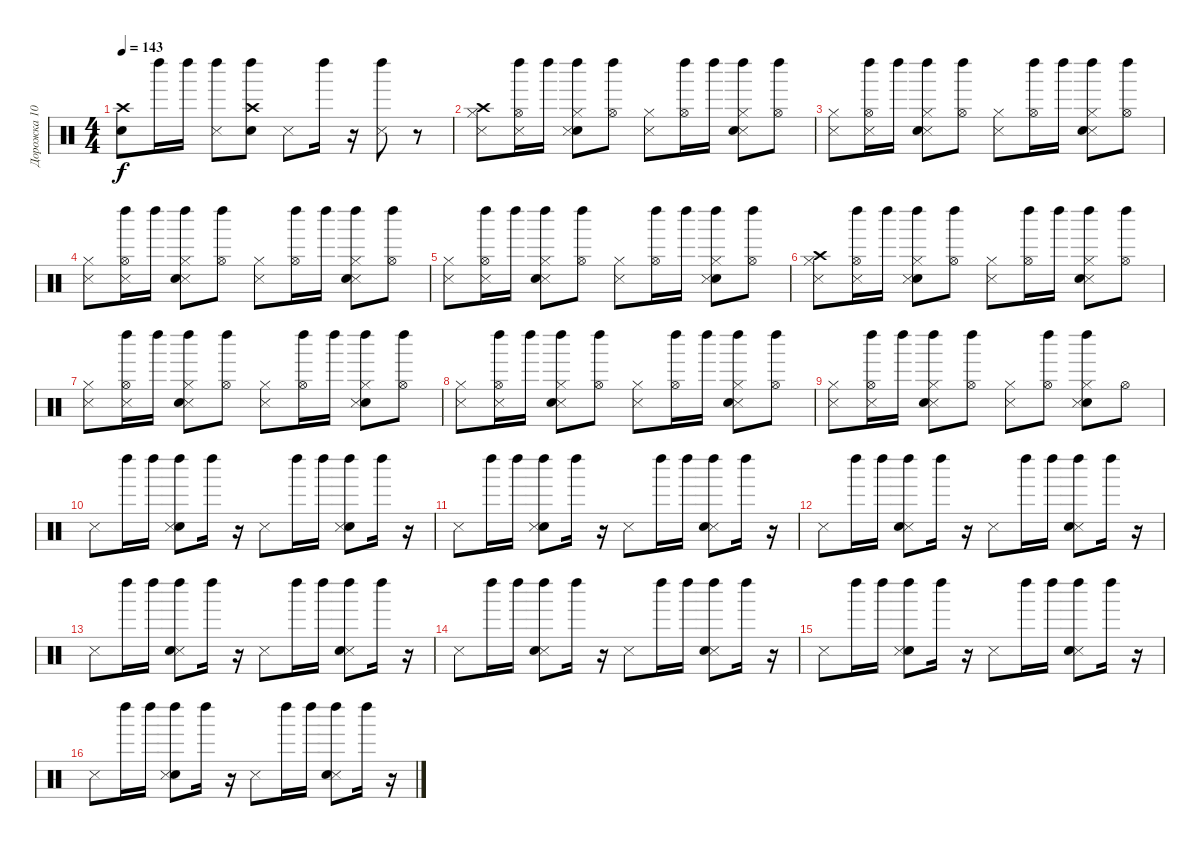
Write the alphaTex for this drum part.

\track ("Дорожка 10" "Дорожка 10") {instrument percussion}
\staff {score}
\articulation defaults
\ts (4 4)
\tempo 143
\clef neutral
\ks c
("Electric Snare (hit)" "Crash high (hit)").8{dy f} "Left Maraca (hit)".16 "Left Maraca (hit)".16 ("Metronome (hit)" "Left Maraca (hit)").8 ("Electric Snare (hit)" "Crash high (hit)" "Left Maraca (hit)").8 "Metronome (hit)".8 "Left Maraca (hit)".16 r.16 ("Metronome (hit)" "Left Maraca (hit)").8 r.8 |
("Metronome (hit)" "Crash high (hit)" "Hi-Hat (closed)").8 ("Metronome (hit)" "Hi-Hat (open)" "Left Maraca (hit)").16 "Left Maraca (hit)".16 ("Electric Snare (hit)" "Metronome (hit)" "Hi-Hat (closed)" "Left Maraca (hit)").8 ("Hi-Hat (open)" "Left Maraca (hit)").8 ("Metronome (hit)" "Hi-Hat (closed)").8 ("Hi-Hat (open)" "Left Maraca (hit)").16 "Left Maraca (hit)".16 ("Metronome (hit)" "Electric Snare (hit)" "Hi-Hat (closed)" "Left Maraca (hit)").8 ("Hi-Hat (open)" "Left Maraca (hit)").8 |
("Metronome (hit)" "Hi-Hat (closed)").8 ("Metronome (hit)" "Hi-Hat (open)" "Left Maraca (hit)").16 "Left Maraca (hit)".16 ("Metronome (hit)" "Electric Snare (hit)" "Hi-Hat (closed)" "Left Maraca (hit)").8 ("Hi-Hat (open)" "Left Maraca (hit)").8 ("Metronome (hit)" "Hi-Hat (closed)").8 ("Hi-Hat (open)" "Left Maraca (hit)").16 "Left Maraca (hit)".16 ("Metronome (hit)" "Electric Snare (hit)" "Hi-Hat (closed)" "Left Maraca (hit)").8 ("Hi-Hat (open)" "Left Maraca (hit)").8 |
("Metronome (hit)" "Hi-Hat (closed)").8 ("Metronome (hit)" "Hi-Hat (open)" "Left Maraca (hit)").16 "Left Maraca (hit)".16 ("Metronome (hit)" "Electric Snare (hit)" "Hi-Hat (closed)" "Left Maraca (hit)").8 ("Hi-Hat (open)" "Left Maraca (hit)").8 ("Metronome (hit)" "Hi-Hat (closed)").8 ("Hi-Hat (open)" "Left Maraca (hit)").16 "Left Maraca (hit)".16 ("Metronome (hit)" "Electric Snare (hit)" "Hi-Hat (closed)" "Left Maraca (hit)").8 ("Hi-Hat (open)" "Left Maraca (hit)").8 |
("Metronome (hit)" "Hi-Hat (closed)").8 ("Metronome (hit)" "Hi-Hat (open)" "Left Maraca (hit)").16 "Left Maraca (hit)".16 ("Metronome (hit)" "Electric Snare (hit)" "Hi-Hat (closed)" "Left Maraca (hit)").8 ("Hi-Hat (open)" "Left Maraca (hit)").8 ("Metronome (hit)" "Hi-Hat (closed)").8 ("Hi-Hat (open)" "Left Maraca (hit)").16 "Left Maraca (hit)".16 ("Electric Snare (hit)" "Metronome (hit)" "Hi-Hat (closed)" "Left Maraca (hit)").8 ("Hi-Hat (open)" "Left Maraca (hit)").8 |
("Metronome (hit)" "Crash high (hit)" "Hi-Hat (closed)").8 ("Metronome (hit)" "Hi-Hat (open)" "Left Maraca (hit)").16 "Left Maraca (hit)".16 ("Electric Snare (hit)" "Metronome (hit)" "Hi-Hat (closed)" "Left Maraca (hit)").8 ("Hi-Hat (open)" "Left Maraca (hit)").8 ("Metronome (hit)" "Hi-Hat (closed)").8 ("Hi-Hat (open)" "Left Maraca (hit)").16 "Left Maraca (hit)".16 ("Metronome (hit)" "Electric Snare (hit)" "Hi-Hat (closed)" "Left Maraca (hit)").8 ("Hi-Hat (open)" "Left Maraca (hit)").8 |
("Metronome (hit)" "Hi-Hat (closed)").8 ("Metronome (hit)" "Hi-Hat (open)" "Left Maraca (hit)").16 "Left Maraca (hit)".16 ("Metronome (hit)" "Electric Snare (hit)" "Hi-Hat (closed)" "Left Maraca (hit)").8 ("Hi-Hat (open)" "Left Maraca (hit)").8 ("Metronome (hit)" "Hi-Hat (closed)").8 ("Hi-Hat (open)" "Left Maraca (hit)").16 "Left Maraca (hit)".16 ("Electric Snare (hit)" "Metronome (hit)" "Hi-Hat (closed)" "Left Maraca (hit)").8 ("Hi-Hat (open)" "Left Maraca (hit)").8 |
("Metronome (hit)" "Hi-Hat (closed)").8 ("Metronome (hit)" "Hi-Hat (open)" "Left Maraca (hit)").16 "Left Maraca (hit)".16 ("Metronome (hit)" "Electric Snare (hit)" "Hi-Hat (closed)" "Left Maraca (hit)").8 ("Hi-Hat (open)" "Left Maraca (hit)").8 ("Metronome (hit)" "Hi-Hat (closed)").8 ("Hi-Hat (open)" "Left Maraca (hit)").16 "Left Maraca (hit)".16 ("Metronome (hit)" "Electric Snare (hit)" "Hi-Hat (closed)" "Left Maraca (hit)").8 ("Hi-Hat (open)" "Left Maraca (hit)").8 |
("Metronome (hit)" "Hi-Hat (closed)").8 ("Metronome (hit)" "Hi-Hat (open)" "Left Maraca (hit)").16 "Left Maraca (hit)".16 ("Metronome (hit)" "Electric Snare (hit)" "Hi-Hat (closed)" "Left Maraca (hit)").8 ("Hi-Hat (open)" "Left Maraca (hit)").8 ("Metronome (hit)" "Hi-Hat (closed)").8 ("Hi-Hat (open)" "Left Maraca (hit)").8 ("Electric Snare (hit)" "Metronome (hit)" "Hi-Hat (closed)" "Left Maraca (hit)").8 "Hi-Hat (open)".8 |
"Metronome (hit)".8 "Left Maraca (hit)".16 "Left Maraca (hit)".16 ("Electric Snare (hit)" "Metronome (hit)" "Left Maraca (hit)").8 "Left Maraca (hit)".16 r.16 "Metronome (hit)".8 "Left Maraca (hit)".16 "Left Maraca (hit)".16 ("Electric Snare (hit)" "Metronome (hit)" "Left Maraca (hit)").8 "Left Maraca (hit)".16 r.16 |
"Metronome (hit)".8 "Left Maraca (hit)".16 "Left Maraca (hit)".16 ("Electric Snare (hit)" "Metronome (hit)" "Left Maraca (hit)").8 "Left Maraca (hit)".16 r.16 "Metronome (hit)".8 "Left Maraca (hit)".16 "Left Maraca (hit)".16 ("Metronome (hit)" "Electric Snare (hit)" "Left Maraca (hit)").8 "Left Maraca (hit)".16 r.16 |
"Metronome (hit)".8 "Left Maraca (hit)".16 "Left Maraca (hit)".16 ("Metronome (hit)" "Electric Snare (hit)" "Left Maraca (hit)").8 "Left Maraca (hit)".16 r.16 "Metronome (hit)".8 "Left Maraca (hit)".16 "Left Maraca (hit)".16 ("Metronome (hit)" "Electric Snare (hit)" "Left Maraca (hit)").8 "Left Maraca (hit)".16 r.16 |
"Metronome (hit)".8 "Left Maraca (hit)".16 "Left Maraca (hit)".16 ("Metronome (hit)" "Electric Snare (hit)" "Left Maraca (hit)").8 "Left Maraca (hit)".16 r.16 "Metronome (hit)".8 "Left Maraca (hit)".16 "Left Maraca (hit)".16 ("Metronome (hit)" "Electric Snare (hit)" "Left Maraca (hit)").8 "Left Maraca (hit)".16 r.16 |
"Metronome (hit)".8 "Left Maraca (hit)".16 "Left Maraca (hit)".16 ("Metronome (hit)" "Electric Snare (hit)" "Left Maraca (hit)").8 "Left Maraca (hit)".16 r.16 "Metronome (hit)".8 "Left Maraca (hit)".16 "Left Maraca (hit)".16 ("Metronome (hit)" "Electric Snare (hit)" "Left Maraca (hit)").8 "Left Maraca (hit)".16 r.16 |
"Metronome (hit)".8 "Left Maraca (hit)".16 "Left Maraca (hit)".16 ("Electric Snare (hit)" "Metronome (hit)" "Left Maraca (hit)").8 "Left Maraca (hit)".16 r.16 "Metronome (hit)".8 "Left Maraca (hit)".16 "Left Maraca (hit)".16 ("Metronome (hit)" "Electric Snare (hit)" "Left Maraca (hit)").8 "Left Maraca (hit)".16 r.16 |
"Metronome (hit)".8 "Left Maraca (hit)".16 "Left Maraca (hit)".16 ("Electric Snare (hit)" "Metronome (hit)" "Left Maraca (hit)").8 "Left Maraca (hit)".16 r.16 "Metronome (hit)".8 "Left Maraca (hit)".16 "Left Maraca (hit)".16 ("Metronome (hit)" "Electric Snare (hit)" "Left Maraca (hit)").8 "Left Maraca (hit)".16 r.16
